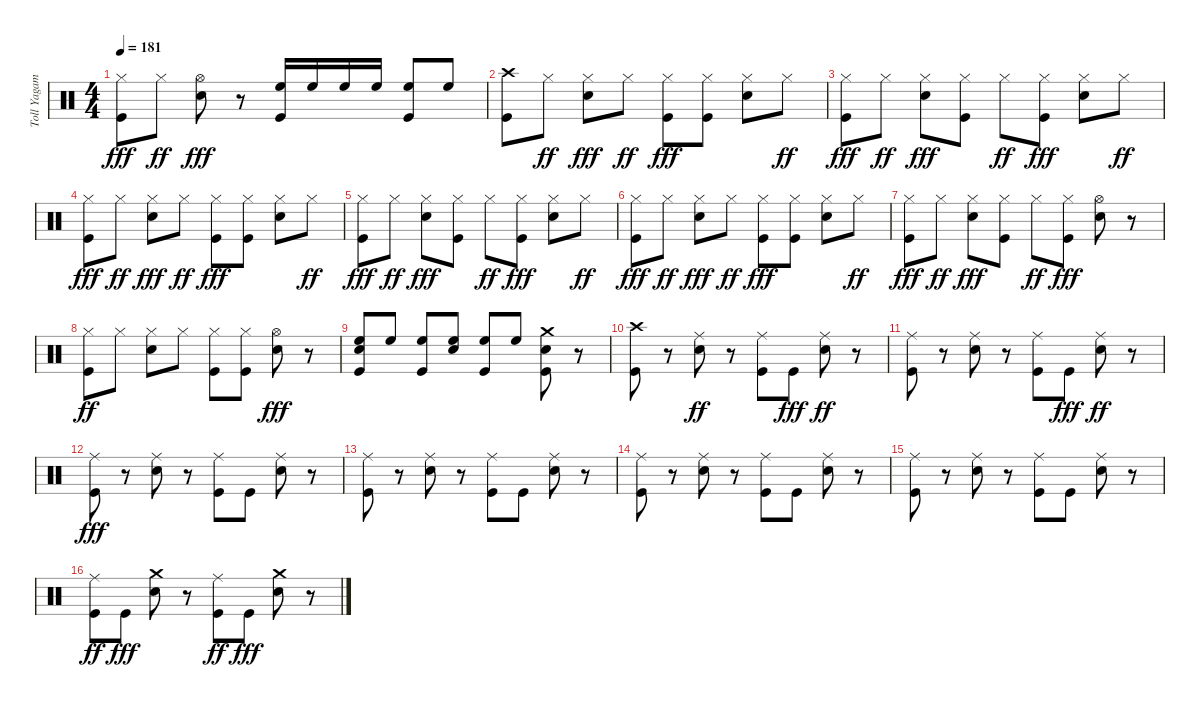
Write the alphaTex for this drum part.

\track ("Toll Yagami" "Toll Yagam") {instrument percussion}
\staff {score}
\articulation defaults
\ts (4 4)
\tempo 181
\clef neutral
\ks c
("Hi-Hat (closed)" "Kick (hit)").8{dy fff} "Hi-Hat (closed)".8{dy ff} ("Hi-Hat (open)" "Snare (hit) 2").8{dy fff} r.8 ("Kick (hit)" "High Floor Tom (hit)").16 "High Floor Tom (hit)".16 "High Floor Tom (hit)".16 "High Floor Tom (hit)".16 ("High Floor Tom (hit)" "Kick (hit)").8 "High Floor Tom (hit)".8 |
("Crash high (hit)" "Kick (hit)").8 "Hi-Hat (closed)".8{dy ff} ("Hi-Hat (closed)" "Snare (hit) 2").8{dy fff} "Hi-Hat (closed)".8{dy ff} ("Hi-Hat (closed)" "Kick (hit)").8{dy fff} ("Hi-Hat (closed)" "Kick (hit)").8 ("Hi-Hat (closed)" "Snare (hit) 2").8 "Hi-Hat (closed)".8{dy ff} |
("Hi-Hat (closed)" "Kick (hit)").8{dy fff} "Hi-Hat (closed)".8{dy ff} ("Hi-Hat (closed)" "Snare (hit) 2").8{dy fff} ("Hi-Hat (closed)" "Kick (hit)").8 "Hi-Hat (closed)".8{dy ff} ("Hi-Hat (closed)" "Kick (hit)").8{dy fff} ("Hi-Hat (closed)" "Snare (hit) 2").8 "Hi-Hat (closed)".8{dy ff} |
("Hi-Hat (closed)" "Kick (hit)").8{dy fff} "Hi-Hat (closed)".8{dy ff} ("Hi-Hat (closed)" "Snare (hit) 2").8{dy fff} "Hi-Hat (closed)".8{dy ff} ("Hi-Hat (closed)" "Kick (hit)").8{dy fff} ("Hi-Hat (closed)" "Kick (hit)").8 ("Hi-Hat (closed)" "Snare (hit) 2").8 "Hi-Hat (closed)".8{dy ff} |
("Hi-Hat (closed)" "Kick (hit)").8{dy fff} "Hi-Hat (closed)".8{dy ff} ("Hi-Hat (closed)" "Snare (hit) 2").8{dy fff} ("Hi-Hat (closed)" "Kick (hit)").8 "Hi-Hat (closed)".8{dy ff} ("Hi-Hat (closed)" "Kick (hit)").8{dy fff} ("Hi-Hat (closed)" "Snare (hit) 2").8 "Hi-Hat (closed)".8{dy ff} |
("Hi-Hat (closed)" "Kick (hit)").8{dy fff} "Hi-Hat (closed)".8{dy ff} ("Hi-Hat (closed)" "Snare (hit) 2").8{dy fff} "Hi-Hat (closed)".8{dy ff} ("Hi-Hat (closed)" "Kick (hit)").8{dy fff} ("Hi-Hat (closed)" "Kick (hit)").8 ("Hi-Hat (closed)" "Snare (hit) 2").8 "Hi-Hat (closed)".8{dy ff} |
("Hi-Hat (closed)" "Kick (hit)").8{dy fff} "Hi-Hat (closed)".8{dy ff} ("Hi-Hat (closed)" "Snare (hit) 2").8{dy fff} ("Hi-Hat (closed)" "Kick (hit)").8 "Hi-Hat (closed)".8{dy ff} ("Hi-Hat (closed)" "Kick (hit)").8{dy fff} ("Hi-Hat (open)" "Snare (hit) 2").8 r.8 |
("Kick (hit)" "Hi-Hat (closed)").8{dy ff} "Hi-Hat (closed)".8 ("Snare (hit) 2" "Hi-Hat (closed)").8 "Hi-Hat (closed)".8 ("Kick (hit)" "Hi-Hat (closed)").8 ("Kick (hit)" "Hi-Hat (closed)").8 ("Snare (hit) 2" "Hi-Hat (open)").8{dy fff} r.8 |
("Kick (hit)" "Snare (hit) 2" "High Floor Tom (hit)").8 "High Floor Tom (hit)".8 ("Kick (hit)" "High Floor Tom (hit)").8 ("Snare (hit) 2" "High Floor Tom (hit)").8 ("Kick (hit)" "High Floor Tom (hit)").8 "High Floor Tom (hit)".8 ("Kick (hit)" "Snare (hit) 2" "Crash medium (hit)").8 r.8 |
("Kick (hit)" "Crash high (hit)").8 r.8 ("Snare (hit) 2" "Ride (middle)").8{dy ff} r.8 ("Kick (hit)" "Ride (middle)").8 "Kick (hit)".8{dy fff} ("Snare (hit) 2" "Ride (middle)").8{dy ff} r.8 |
("Kick (hit)" "Ride (middle)").8 r.8 ("Snare (hit) 2" "Ride (middle)").8 r.8 ("Kick (hit)" "Ride (middle)").8 "Kick (hit)".8{dy fff} ("Snare (hit) 2" "Ride (middle)").8{dy ff} r.8 |
("Ride (middle)" "Kick (hit)").8{dy fff} r.8 ("Ride (middle)" "Snare (hit) 2").8 r.8 ("Ride (middle)" "Kick (hit)").8 "Kick (hit)".8 ("Ride (middle)" "Snare (hit) 2").8 r.8 |
("Ride (middle)" "Kick (hit)").8 r.8 ("Ride (middle)" "Snare (hit) 2").8 r.8 ("Ride (middle)" "Kick (hit)").8 "Kick (hit)".8 ("Ride (middle)" "Snare (hit) 2").8 r.8 |
("Ride (middle)" "Kick (hit)").8 r.8 ("Ride (middle)" "Snare (hit) 2").8 r.8 ("Ride (middle)" "Kick (hit)").8 "Kick (hit)".8 ("Ride (middle)" "Snare (hit) 2").8 r.8 |
("Ride (middle)" "Kick (hit)").8 r.8 ("Ride (middle)" "Snare (hit) 2").8 r.8 ("Ride (middle)" "Kick (hit)").8 "Kick (hit)".8 ("Ride (middle)" "Snare (hit) 2").8 r.8 |
("Kick (hit)" "Ride (middle)").8{dy ff} "Kick (hit)".8{dy fff} ("Snare (hit) 2" "Crash medium (hit)").8 r.8 ("Kick (hit)" "Ride (middle)").8{dy ff} "Kick (hit)".8{dy fff} ("Snare (hit) 2" "Crash medium (hit)").8 r.8
